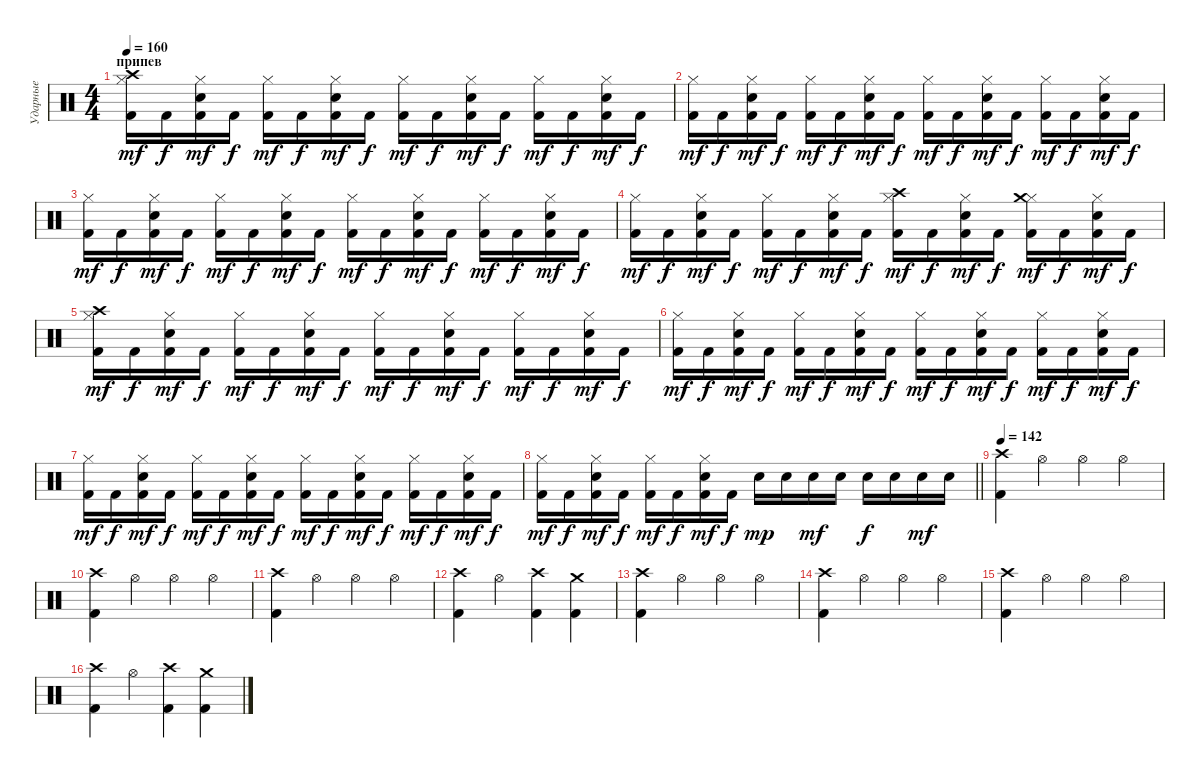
\track ("Ударные" "Ударные") {instrument percussion}
\staff {score}
\articulation defaults
\ts (4 4)
\section ("" "припев")
\tempo 160
\clef neutral
\ks c
("Kick (hit) 2" "Hi-Hat (closed)" "Crash high (hit)").16{dy mf} "Kick (hit) 2".16{dy f} ("Kick (hit) 2" "Snare (hit) 2" "Hi-Hat (closed)").16{dy mf} "Kick (hit) 2".16{dy f} ("Kick (hit) 2" "Hi-Hat (closed)").16{dy mf} "Kick (hit) 2".16{dy f} ("Kick (hit) 2" "Snare (hit) 2" "Hi-Hat (closed)").16{dy mf} "Kick (hit) 2".16{dy f} ("Kick (hit) 2" "Hi-Hat (closed)").16{dy mf} "Kick (hit) 2".16{dy f} ("Kick (hit) 2" "Snare (hit) 2" "Hi-Hat (closed)").16{dy mf} "Kick (hit) 2".16{dy f} ("Kick (hit) 2" "Hi-Hat (closed)").16{dy mf} "Kick (hit) 2".16{dy f} ("Kick (hit) 2" "Snare (hit) 2" "Hi-Hat (closed)").16{dy mf} "Kick (hit) 2".16{dy f} |
("Kick (hit) 2" "Hi-Hat (closed)").16{dy mf} "Kick (hit) 2".16{dy f} ("Kick (hit) 2" "Snare (hit) 2" "Hi-Hat (closed)").16{dy mf} "Kick (hit) 2".16{dy f} ("Kick (hit) 2" "Hi-Hat (closed)").16{dy mf} "Kick (hit) 2".16{dy f} ("Kick (hit) 2" "Snare (hit) 2" "Hi-Hat (closed)").16{dy mf} "Kick (hit) 2".16{dy f} ("Kick (hit) 2" "Hi-Hat (closed)").16{dy mf} "Kick (hit) 2".16{dy f} ("Kick (hit) 2" "Snare (hit) 2" "Hi-Hat (closed)").16{dy mf} "Kick (hit) 2".16{dy f} ("Kick (hit) 2" "Hi-Hat (closed)").16{dy mf} "Kick (hit) 2".16{dy f} ("Kick (hit) 2" "Snare (hit) 2" "Hi-Hat (closed)").16{dy mf} "Kick (hit) 2".16{dy f} |
("Kick (hit) 2" "Hi-Hat (closed)").16{dy mf} "Kick (hit) 2".16{dy f} ("Kick (hit) 2" "Snare (hit) 2" "Hi-Hat (closed)").16{dy mf} "Kick (hit) 2".16{dy f} ("Kick (hit) 2" "Hi-Hat (closed)").16{dy mf} "Kick (hit) 2".16{dy f} ("Kick (hit) 2" "Snare (hit) 2" "Hi-Hat (closed)").16{dy mf} "Kick (hit) 2".16{dy f} ("Kick (hit) 2" "Hi-Hat (closed)").16{dy mf} "Kick (hit) 2".16{dy f} ("Kick (hit) 2" "Snare (hit) 2" "Hi-Hat (closed)").16{dy mf} "Kick (hit) 2".16{dy f} ("Kick (hit) 2" "Hi-Hat (closed)").16{dy mf} "Kick (hit) 2".16{dy f} ("Kick (hit) 2" "Snare (hit) 2" "Hi-Hat (closed)").16{dy mf} "Kick (hit) 2".16{dy f} |
("Kick (hit) 2" "Hi-Hat (closed)").16{dy mf} "Kick (hit) 2".16{dy f} ("Kick (hit) 2" "Snare (hit) 2" "Hi-Hat (closed)").16{dy mf} "Kick (hit) 2".16{dy f} ("Kick (hit) 2" "Hi-Hat (closed)").16{dy mf} "Kick (hit) 2".16{dy f} ("Kick (hit) 2" "Snare (hit) 2" "Hi-Hat (closed)").16{dy mf} "Kick (hit) 2".16{dy f} ("Kick (hit) 2" "Hi-Hat (closed)" "Crash high (hit)").16{dy mf} "Kick (hit) 2".16{dy f} ("Kick (hit) 2" "Snare (hit) 2" "Hi-Hat (closed)").16{dy mf} "Kick (hit) 2".16{dy f} ("Kick (hit) 2" "Hi-Hat (closed)" "Crash medium (hit)").16{dy mf} "Kick (hit) 2".16{dy f} ("Kick (hit) 2" "Snare (hit) 2" "Hi-Hat (closed)").16{dy mf} "Kick (hit) 2".16{dy f} |
("Kick (hit) 2" "Hi-Hat (closed)" "Crash high (hit)").16{dy mf} "Kick (hit) 2".16{dy f} ("Kick (hit) 2" "Snare (hit) 2" "Hi-Hat (closed)").16{dy mf} "Kick (hit) 2".16{dy f} ("Kick (hit) 2" "Hi-Hat (closed)").16{dy mf} "Kick (hit) 2".16{dy f} ("Kick (hit) 2" "Snare (hit) 2" "Hi-Hat (closed)").16{dy mf} "Kick (hit) 2".16{dy f} ("Kick (hit) 2" "Hi-Hat (closed)").16{dy mf} "Kick (hit) 2".16{dy f} ("Kick (hit) 2" "Snare (hit) 2" "Hi-Hat (closed)").16{dy mf} "Kick (hit) 2".16{dy f} ("Kick (hit) 2" "Hi-Hat (closed)").16{dy mf} "Kick (hit) 2".16{dy f} ("Kick (hit) 2" "Snare (hit) 2" "Hi-Hat (closed)").16{dy mf} "Kick (hit) 2".16{dy f} |
("Kick (hit) 2" "Hi-Hat (closed)").16{dy mf} "Kick (hit) 2".16{dy f} ("Kick (hit) 2" "Snare (hit) 2" "Hi-Hat (closed)").16{dy mf} "Kick (hit) 2".16{dy f} ("Kick (hit) 2" "Hi-Hat (closed)").16{dy mf} "Kick (hit) 2".16{dy f} ("Kick (hit) 2" "Snare (hit) 2" "Hi-Hat (closed)").16{dy mf} "Kick (hit) 2".16{dy f} ("Kick (hit) 2" "Hi-Hat (closed)").16{dy mf} "Kick (hit) 2".16{dy f} ("Kick (hit) 2" "Snare (hit) 2" "Hi-Hat (closed)").16{dy mf} "Kick (hit) 2".16{dy f} ("Kick (hit) 2" "Hi-Hat (closed)").16{dy mf} "Kick (hit) 2".16{dy f} ("Kick (hit) 2" "Snare (hit) 2" "Hi-Hat (closed)").16{dy mf} "Kick (hit) 2".16{dy f} |
("Kick (hit) 2" "Hi-Hat (closed)").16{dy mf} "Kick (hit) 2".16{dy f} ("Kick (hit) 2" "Snare (hit) 2" "Hi-Hat (closed)").16{dy mf} "Kick (hit) 2".16{dy f} ("Kick (hit) 2" "Hi-Hat (closed)").16{dy mf} "Kick (hit) 2".16{dy f} ("Kick (hit) 2" "Snare (hit) 2" "Hi-Hat (closed)").16{dy mf} "Kick (hit) 2".16{dy f} ("Kick (hit) 2" "Hi-Hat (closed)").16{dy mf} "Kick (hit) 2".16{dy f} ("Kick (hit) 2" "Snare (hit) 2" "Hi-Hat (closed)").16{dy mf} "Kick (hit) 2".16{dy f} ("Kick (hit) 2" "Hi-Hat (closed)").16{dy mf} "Kick (hit) 2".16{dy f} ("Kick (hit) 2" "Snare (hit) 2" "Hi-Hat (closed)").16{dy mf} "Kick (hit) 2".16{dy f} |
\barLineRight lightlight
("Kick (hit) 2" "Hi-Hat (closed)").16{dy mf} "Kick (hit) 2".16{dy f} ("Kick (hit) 2" "Snare (hit) 2" "Hi-Hat (closed)").16{dy mf} "Kick (hit) 2".16{dy f} ("Kick (hit) 2" "Hi-Hat (closed)").16{dy mf} "Kick (hit) 2".16{dy f} ("Kick (hit) 2" "Snare (hit) 2" "Hi-Hat (closed)").16{dy mf} "Kick (hit) 2".16{dy f} "Snare (hit) 2".16{dy mp} "Snare (hit) 2".16 "Snare (hit) 2".16{dy mf} "Snare (hit) 2".16 "Snare (hit) 2".16{dy f} "Snare (hit) 2".16 "Snare (hit) 2".16{dy mf} "Snare (hit) 2".16 |
\section ("" "")
\tempo 142
("Kick (hit) 2" "Crash high (hit)").4 "Hi-Hat (open)".4 "Hi-Hat (open)".4 "Hi-Hat (open)".4 |
("Kick (hit) 2" "Crash high (hit)").4 "Hi-Hat (open)".4 "Hi-Hat (open)".4 "Hi-Hat (open)".4 |
("Kick (hit) 2" "Crash high (hit)").4 "Hi-Hat (open)".4 "Hi-Hat (open)".4 "Hi-Hat (open)".4 |
("Kick (hit) 2" "Crash high (hit)").4 "Hi-Hat (open)".4 ("Kick (hit) 2" "Crash high (hit)").4 ("Kick (hit) 2" "Crash medium (hit)").4 |
("Kick (hit) 2" "Crash high (hit)").4 "Hi-Hat (open)".4 "Hi-Hat (open)".4 "Hi-Hat (open)".4 |
("Kick (hit) 2" "Crash high (hit)").4 "Hi-Hat (open)".4 "Hi-Hat (open)".4 "Hi-Hat (open)".4 |
("Kick (hit) 2" "Crash high (hit)").4 "Hi-Hat (open)".4 "Hi-Hat (open)".4 "Hi-Hat (open)".4 |
("Kick (hit) 2" "Crash high (hit)").4 "Hi-Hat (open)".4 ("Kick (hit) 2" "Crash high (hit)").4 ("Kick (hit) 2" "Crash medium (hit)").4
